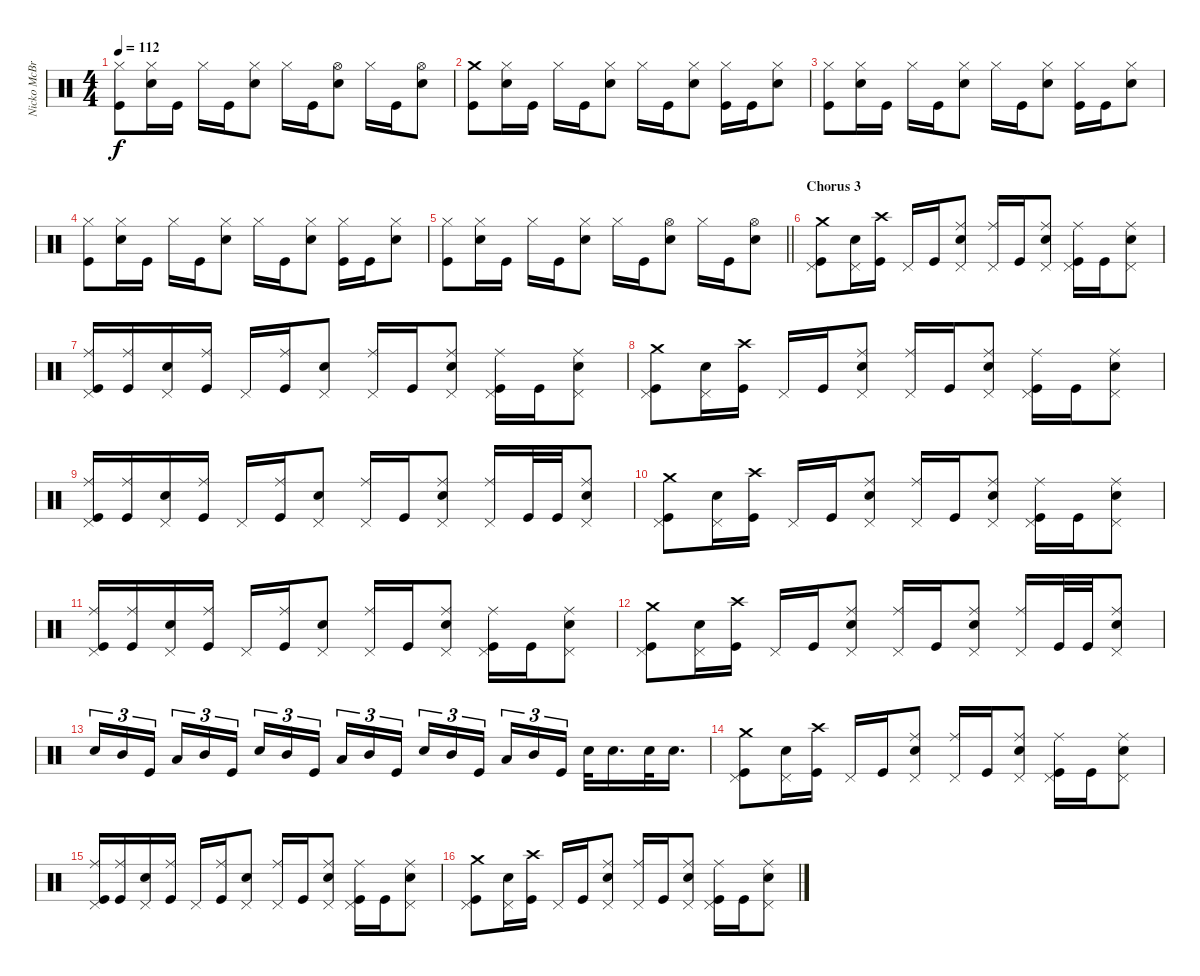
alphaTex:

\track ("Nicko McBrain" "Nicko McBr") {instrument percussion}
\staff {score}
\articulation defaults
\ts (4 4)
\tempo 112
\clef neutral
\ks c
("Hi-Hat (closed)" "Kick (hit)").8{dy f} ("Hi-Hat (closed)" "Snare (hit) 2").16 "Kick (hit)".16 "Hi-Hat (closed)".16 "Kick (hit)".16 ("Hi-Hat (closed)" "Snare (hit) 2").8 "Hi-Hat (closed)".16 "Kick (hit)".16 ("Hi-Hat (open)" "Snare (hit) 2").8 "Hi-Hat (closed)".16 "Kick (hit)".16 ("Hi-Hat (open)" "Snare (hit) 2").8 |
("Crash medium (hit)" "Kick (hit)").8 ("Hi-Hat (closed)" "Snare (hit) 2").16 "Kick (hit)".16 "Hi-Hat (closed)".16 "Kick (hit)".16 ("Hi-Hat (closed)" "Snare (hit) 2").8 "Hi-Hat (closed)".16 "Kick (hit)".16 ("Hi-Hat (closed)" "Snare (hit) 2").8 ("Hi-Hat (closed)" "Kick (hit)").16 "Kick (hit)".16 ("Hi-Hat (closed)" "Snare (hit) 2").8 |
("Hi-Hat (closed)" "Kick (hit)").8 ("Hi-Hat (closed)" "Snare (hit) 2").16 "Kick (hit)".16 "Hi-Hat (closed)".16 "Kick (hit)".16 ("Hi-Hat (closed)" "Snare (hit) 2").8 "Hi-Hat (closed)".16 "Kick (hit)".16 ("Hi-Hat (closed)" "Snare (hit) 2").8 ("Hi-Hat (closed)" "Kick (hit)").16 "Kick (hit)".16 ("Hi-Hat (closed)" "Snare (hit) 2").8 |
("Hi-Hat (closed)" "Kick (hit)").8 ("Hi-Hat (closed)" "Snare (hit) 2").16 "Kick (hit)".16 "Hi-Hat (closed)".16 "Kick (hit)".16 ("Hi-Hat (closed)" "Snare (hit) 2").8 "Hi-Hat (closed)".16 "Kick (hit)".16 ("Hi-Hat (closed)" "Snare (hit) 2").8 ("Hi-Hat (closed)" "Kick (hit)").16 "Kick (hit)".16 ("Hi-Hat (closed)" "Snare (hit) 2").8 |
\barLineRight lightlight
("Hi-Hat (closed)" "Kick (hit)").8 ("Hi-Hat (closed)" "Snare (hit) 2").16 "Kick (hit)".16 "Hi-Hat (closed)".16 "Kick (hit)".16 ("Hi-Hat (closed)" "Snare (hit) 2").8 "Hi-Hat (closed)".16 "Kick (hit)".16 ("Hi-Hat (open)" "Snare (hit) 2").8 "Hi-Hat (closed)".16 "Kick (hit)".16 ("Hi-Hat (open)" "Snare (hit) 2").8 |
\section ("" "Chorus 3")
("Crash medium (hit)" "Pedal Hi-Hat (hit)" "Kick (hit)").8 ("Snare (hit) 2" "Pedal Hi-Hat (hit)").16 ("Crash high (hit)" "Kick (hit)").16 "Pedal Hi-Hat (hit)".16 "Kick (hit)".16 ("Ride (middle)" "Snare (hit) 2" "Pedal Hi-Hat (hit)").8 ("Ride (middle)" "Pedal Hi-Hat (hit)").16 "Kick (hit)".16 ("Ride (middle)" "Snare (hit) 2" "Pedal Hi-Hat (hit)").8 ("Ride (middle)" "Pedal Hi-Hat (hit)" "Kick (hit)").16 "Kick (hit)".16 ("Ride (middle)" "Snare (hit) 2" "Pedal Hi-Hat (hit)").8 |
("Ride (middle)" "Pedal Hi-Hat (hit)" "Kick (hit)").16 ("Ride (middle)" "Kick (hit)").16 ("Snare (hit) 2" "Pedal Hi-Hat (hit)").16 ("Ride (middle)" "Kick (hit)").16 "Pedal Hi-Hat (hit)".16 ("Ride (middle)" "Kick (hit)").16 ("Snare (hit) 2" "Pedal Hi-Hat (hit)").8 ("Ride (middle)" "Pedal Hi-Hat (hit)").16 "Kick (hit)".16 ("Ride (middle)" "Snare (hit) 2" "Pedal Hi-Hat (hit)").8 ("Ride (middle)" "Pedal Hi-Hat (hit)" "Kick (hit)").16 "Kick (hit)".16 ("Ride (middle)" "Snare (hit) 2" "Pedal Hi-Hat (hit)").8 |
("Crash medium (hit)" "Pedal Hi-Hat (hit)" "Kick (hit)").8 ("Snare (hit) 2" "Pedal Hi-Hat (hit)").16 ("Crash high (hit)" "Kick (hit)").16 "Pedal Hi-Hat (hit)".16 "Kick (hit)".16 ("Ride (middle)" "Snare (hit) 2" "Pedal Hi-Hat (hit)").8 ("Ride (middle)" "Pedal Hi-Hat (hit)").16 "Kick (hit)".16 ("Ride (middle)" "Snare (hit) 2" "Pedal Hi-Hat (hit)").8 ("Ride (middle)" "Pedal Hi-Hat (hit)" "Kick (hit)").16 "Kick (hit)".16 ("Ride (middle)" "Snare (hit) 2" "Pedal Hi-Hat (hit)").8 |
("Ride (middle)" "Pedal Hi-Hat (hit)" "Kick (hit)").16 ("Ride (middle)" "Kick (hit)").16 ("Snare (hit) 2" "Pedal Hi-Hat (hit)").16 ("Ride (middle)" "Kick (hit)").16 "Pedal Hi-Hat (hit)".16 ("Ride (middle)" "Kick (hit)").16 ("Snare (hit) 2" "Pedal Hi-Hat (hit)").8 ("Ride (middle)" "Pedal Hi-Hat (hit)").16 "Kick (hit)".16 ("Ride (middle)" "Snare (hit) 2" "Pedal Hi-Hat (hit)").8 ("Ride (middle)" "Pedal Hi-Hat (hit)").16 "Kick (hit)".32 "Kick (hit)".32 ("Ride (middle)" "Snare (hit) 2" "Pedal Hi-Hat (hit)").8 |
("Crash medium (hit)" "Pedal Hi-Hat (hit)" "Kick (hit)").8 ("Snare (hit) 2" "Pedal Hi-Hat (hit)").16 ("Crash high (hit)" "Kick (hit)").16 "Pedal Hi-Hat (hit)".16 "Kick (hit)".16 ("Ride (middle)" "Snare (hit) 2" "Pedal Hi-Hat (hit)").8 ("Ride (middle)" "Pedal Hi-Hat (hit)").16 "Kick (hit)".16 ("Ride (middle)" "Snare (hit) 2" "Pedal Hi-Hat (hit)").8 ("Ride (middle)" "Pedal Hi-Hat (hit)" "Kick (hit)").16 "Kick (hit)".16 ("Ride (middle)" "Snare (hit) 2" "Pedal Hi-Hat (hit)").8 |
("Ride (middle)" "Pedal Hi-Hat (hit)" "Kick (hit)").16 ("Ride (middle)" "Kick (hit)").16 ("Snare (hit) 2" "Pedal Hi-Hat (hit)").16 ("Ride (middle)" "Kick (hit)").16 "Pedal Hi-Hat (hit)".16 ("Ride (middle)" "Kick (hit)").16 ("Snare (hit) 2" "Pedal Hi-Hat (hit)").8 ("Ride (middle)" "Pedal Hi-Hat (hit)").16 "Kick (hit)".16 ("Ride (middle)" "Snare (hit) 2" "Pedal Hi-Hat (hit)").8 ("Ride (middle)" "Pedal Hi-Hat (hit)" "Kick (hit)").16 "Kick (hit)".16 ("Ride (middle)" "Snare (hit) 2" "Pedal Hi-Hat (hit)").8 |
("Crash medium (hit)" "Pedal Hi-Hat (hit)" "Kick (hit)").8 ("Snare (hit) 2" "Pedal Hi-Hat (hit)").16 ("Crash high (hit)" "Kick (hit)").16 "Pedal Hi-Hat (hit)".16 "Kick (hit)".16 ("Ride (middle)" "Snare (hit) 2" "Pedal Hi-Hat (hit)").8 ("Ride (middle)" "Pedal Hi-Hat (hit)").16 "Kick (hit)".16 ("Ride (middle)" "Snare (hit) 2" "Pedal Hi-Hat (hit)").8 ("Ride (middle)" "Pedal Hi-Hat (hit)").16 "Kick (hit)".32 "Kick (hit)".32 ("Ride (middle)" "Snare (hit) 2" "Pedal Hi-Hat (hit)").8 |
"Snare (hit) 2".16{tu (3 2)} "Mid Tom (hit)".16{tu (3 2)} "Kick (hit)".16{tu (3 2) beam splitsecondary} "Low Tom (hit)".16{tu (3 2)} "Mid Tom (hit)".16{tu (3 2)} "Kick (hit)".16{tu (3 2)} "Snare (hit) 2".16{tu (3 2)} "Mid Tom (hit)".16{tu (3 2)} "Kick (hit)".16{tu (3 2) beam splitsecondary} "Low Tom (hit)".16{tu (3 2)} "Mid Tom (hit)".16{tu (3 2)} "Kick (hit)".16{tu (3 2)} "Snare (hit) 2".16{tu (3 2)} "Mid Tom (hit)".16{tu (3 2)} "Kick (hit)".16{tu (3 2) beam splitsecondary} "Low Tom (hit)".16{tu (3 2)} "Mid Tom (hit)".16{tu (3 2)} "Kick (hit)".16{tu (3 2)} "Snare (hit) 2".32 "Snare (hit) 2".16{d} "Snare (hit) 2".32 "Snare (hit) 2".16{d} |
("Crash medium (hit)" "Pedal Hi-Hat (hit)" "Kick (hit)").8 ("Snare (hit) 2" "Pedal Hi-Hat (hit)").16 ("Crash high (hit)" "Kick (hit)").16 "Pedal Hi-Hat (hit)".16 "Kick (hit)".16 ("Ride (middle)" "Snare (hit) 2" "Pedal Hi-Hat (hit)").8 ("Ride (middle)" "Pedal Hi-Hat (hit)").16 "Kick (hit)".16 ("Ride (middle)" "Snare (hit) 2" "Pedal Hi-Hat (hit)").8 ("Ride (middle)" "Pedal Hi-Hat (hit)" "Kick (hit)").16 "Kick (hit)".16 ("Ride (middle)" "Snare (hit) 2" "Pedal Hi-Hat (hit)").8 |
("Ride (middle)" "Pedal Hi-Hat (hit)" "Kick (hit)").16 ("Ride (middle)" "Kick (hit)").16 ("Snare (hit) 2" "Pedal Hi-Hat (hit)").16 ("Ride (middle)" "Kick (hit)").16 "Pedal Hi-Hat (hit)".16 ("Ride (middle)" "Kick (hit)").16 ("Snare (hit) 2" "Pedal Hi-Hat (hit)").8 ("Ride (middle)" "Pedal Hi-Hat (hit)").16 "Kick (hit)".16 ("Ride (middle)" "Snare (hit) 2" "Pedal Hi-Hat (hit)").8 ("Ride (middle)" "Pedal Hi-Hat (hit)" "Kick (hit)").16 "Kick (hit)".16 ("Ride (middle)" "Snare (hit) 2" "Pedal Hi-Hat (hit)").8 |
("Crash medium (hit)" "Pedal Hi-Hat (hit)" "Kick (hit)").8 ("Snare (hit) 2" "Pedal Hi-Hat (hit)").16 ("Crash high (hit)" "Kick (hit)").16 "Pedal Hi-Hat (hit)".16 "Kick (hit)".16 ("Ride (middle)" "Snare (hit) 2" "Pedal Hi-Hat (hit)").8 ("Ride (middle)" "Pedal Hi-Hat (hit)").16 "Kick (hit)".16 ("Ride (middle)" "Snare (hit) 2" "Pedal Hi-Hat (hit)").8 ("Ride (middle)" "Pedal Hi-Hat (hit)" "Kick (hit)").16 "Kick (hit)".16 ("Ride (middle)" "Snare (hit) 2" "Pedal Hi-Hat (hit)").8
